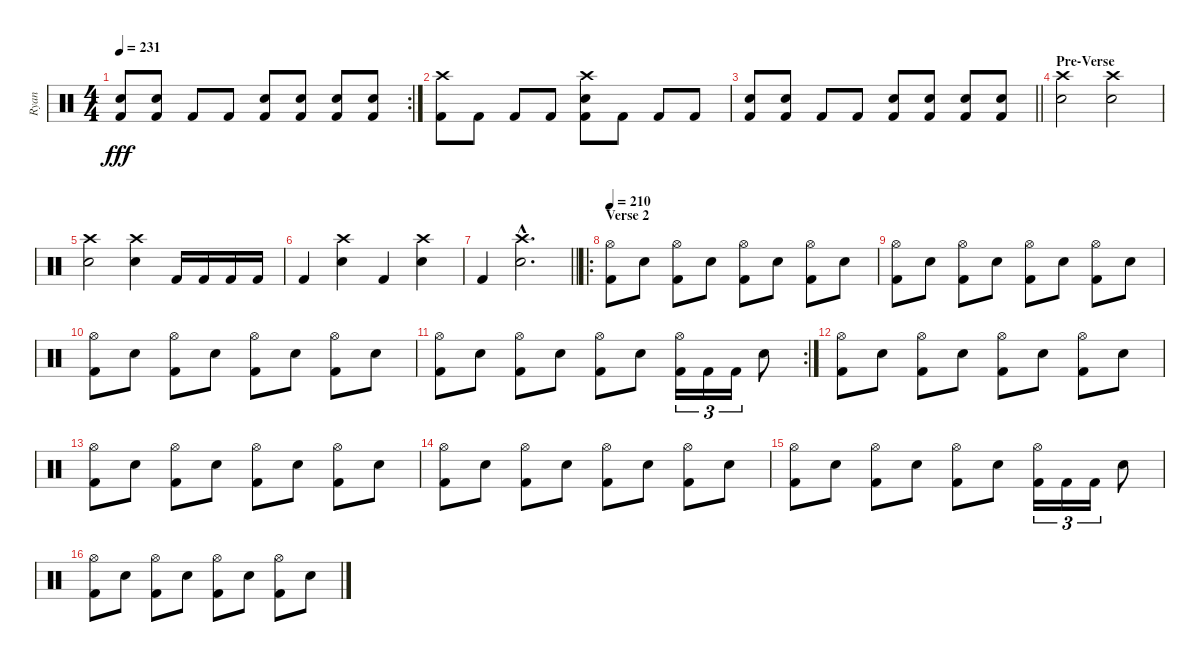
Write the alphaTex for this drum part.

\track ("Ryan" "Ryan") {instrument percussion}
\staff {score}
\articulation defaults
\rc 2
\ts (4 4)
\tempo 231
\clef neutral
\ks c
("Electric Snare (hit)" "Kick (hit) 2").8{dy fff} ("Electric Snare (hit)" "Kick (hit) 2").8 "Kick (hit) 2".8 "Kick (hit) 2".8 ("Electric Snare (hit)" "Kick (hit) 2").8 ("Electric Snare (hit)" "Kick (hit) 2").8 ("Electric Snare (hit)" "Kick (hit) 2").8 ("Electric Snare (hit)" "Kick (hit) 2").8 |
("Crash high (hit)" "Kick (hit) 2").8 "Kick (hit) 2".8 "Kick (hit) 2".8 "Kick (hit) 2".8 ("Crash high (hit)" "Electric Snare (hit)" "Kick (hit) 2").8 "Kick (hit) 2".8 "Kick (hit) 2".8 "Kick (hit) 2".8 |
\barLineRight lightlight
("Electric Snare (hit)" "Kick (hit) 2").8 ("Electric Snare (hit)" "Kick (hit) 2").8 "Kick (hit) 2".8 "Kick (hit) 2".8 ("Electric Snare (hit)" "Kick (hit) 2").8 ("Electric Snare (hit)" "Kick (hit) 2").8 ("Electric Snare (hit)" "Kick (hit) 2").8 ("Electric Snare (hit)" "Kick (hit) 2").8 |
\section ("" "Pre-Verse")
("Crash high (hit)" "Electric Snare (hit)").2 ("Crash high (hit)" "Electric Snare (hit)").2 |
("Crash high (hit)" "Electric Snare (hit)").2 ("Crash high (hit)" "Electric Snare (hit)").4 "Kick (hit) 2".16 "Kick (hit) 2".16 "Kick (hit) 2".16 "Kick (hit) 2".16 |
"Kick (hit) 2".4 ("Crash high (hit)" "Electric Snare (hit)").4 "Kick (hit) 2".4 ("Crash high (hit)" "Electric Snare (hit)").4 |
\barLineRight lightlight "Kick (hit) 2".4
("Crash high (hit)"{hac} "Electric Snare (hit)"{hac}).2{d} |
\ro
\section ("" "Verse 2")
\tempo 210
("Hi-Hat (open)" "Kick (hit) 2").8 "Electric Snare (hit)".8 ("Hi-Hat (open)" "Kick (hit) 2").8 "Electric Snare (hit)".8 ("Hi-Hat (open)" "Kick (hit) 2").8 "Electric Snare (hit)".8 ("Hi-Hat (open)" "Kick (hit) 2").8 "Electric Snare (hit)".8 |
("Hi-Hat (open)" "Kick (hit) 2").8 "Electric Snare (hit)".8 ("Hi-Hat (open)" "Kick (hit) 2").8 "Electric Snare (hit)".8 ("Hi-Hat (open)" "Kick (hit) 2").8 "Electric Snare (hit)".8 ("Hi-Hat (open)" "Kick (hit) 2").8 "Electric Snare (hit)".8 |
("Hi-Hat (open)" "Kick (hit) 2").8 "Electric Snare (hit)".8 ("Hi-Hat (open)" "Kick (hit) 2").8 "Electric Snare (hit)".8 ("Hi-Hat (open)" "Kick (hit) 2").8 "Electric Snare (hit)".8 ("Hi-Hat (open)" "Kick (hit) 2").8 "Electric Snare (hit)".8 |
\rc 2
("Hi-Hat (open)" "Kick (hit) 2").8 "Electric Snare (hit)".8 ("Hi-Hat (open)" "Kick (hit) 2").8 "Electric Snare (hit)".8 ("Hi-Hat (open)" "Kick (hit) 2").8 "Electric Snare (hit)".8 ("Hi-Hat (open)" "Kick (hit) 2").16{tu (3 2)} "Kick (hit) 2".16{tu (3 2)} "Kick (hit) 2".16{tu (3 2)} "Electric Snare (hit)".8 |
("Hi-Hat (open)" "Kick (hit) 2").8 "Electric Snare (hit)".8 ("Hi-Hat (open)" "Kick (hit) 2").8 "Electric Snare (hit)".8 ("Hi-Hat (open)" "Kick (hit) 2").8 "Electric Snare (hit)".8 ("Hi-Hat (open)" "Kick (hit) 2").8 "Electric Snare (hit)".8 |
("Hi-Hat (open)" "Kick (hit) 2").8 "Electric Snare (hit)".8 ("Hi-Hat (open)" "Kick (hit) 2").8 "Electric Snare (hit)".8 ("Hi-Hat (open)" "Kick (hit) 2").8 "Electric Snare (hit)".8 ("Hi-Hat (open)" "Kick (hit) 2").8 "Electric Snare (hit)".8 |
("Hi-Hat (open)" "Kick (hit) 2").8 "Electric Snare (hit)".8 ("Hi-Hat (open)" "Kick (hit) 2").8 "Electric Snare (hit)".8 ("Hi-Hat (open)" "Kick (hit) 2").8 "Electric Snare (hit)".8 ("Hi-Hat (open)" "Kick (hit) 2").8 "Electric Snare (hit)".8 |
("Hi-Hat (open)" "Kick (hit) 2").8 "Electric Snare (hit)".8 ("Hi-Hat (open)" "Kick (hit) 2").8 "Electric Snare (hit)".8 ("Hi-Hat (open)" "Kick (hit) 2").8 "Electric Snare (hit)".8 ("Hi-Hat (open)" "Kick (hit) 2").16{tu (3 2)} "Kick (hit) 2".16{tu (3 2)} "Kick (hit) 2".16{tu (3 2)} "Electric Snare (hit)".8 |
("Hi-Hat (open)" "Kick (hit) 2").8 "Electric Snare (hit)".8 ("Hi-Hat (open)" "Kick (hit) 2").8 "Electric Snare (hit)".8 ("Hi-Hat (open)" "Kick (hit) 2").8 "Electric Snare (hit)".8 ("Hi-Hat (open)" "Kick (hit) 2").8 "Electric Snare (hit)".8
